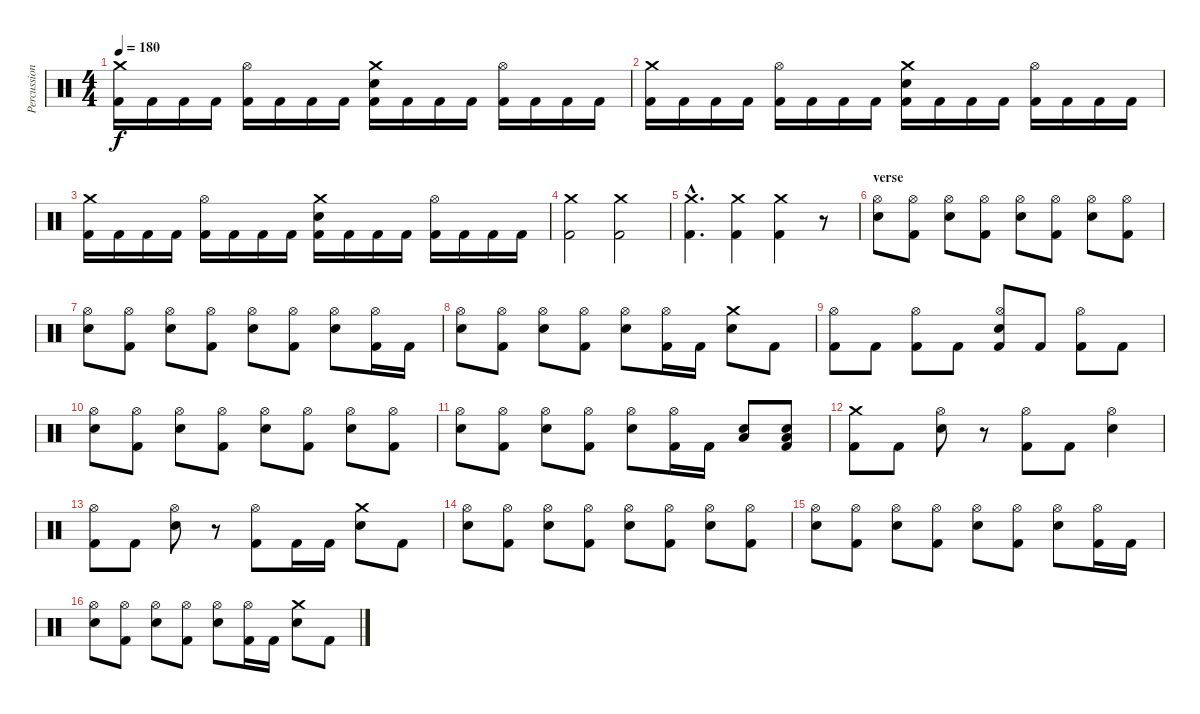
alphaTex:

\track ("Percussion" "Percussion") {instrument percussion}
\staff {score}
\articulation defaults
\ts (4 4)
\tempo 180
\clef neutral
\ks c
("Crash medium (hit)" "Kick (hit) 2").16{dy f} "Kick (hit) 2".16 "Kick (hit) 2".16 "Kick (hit) 2".16 ("Hi-Hat (open)" "Kick (hit) 2").16 "Kick (hit) 2".16 "Kick (hit) 2".16 "Kick (hit) 2".16 ("Crash medium (hit)" "Electric Snare (hit)" "Kick (hit) 2").16 "Kick (hit) 2".16 "Kick (hit) 2".16 "Kick (hit) 2".16 ("Hi-Hat (open)" "Kick (hit) 2").16 "Kick (hit) 2".16 "Kick (hit) 2".16 "Kick (hit) 2".16 |
("Crash medium (hit)" "Kick (hit) 2").16 "Kick (hit) 2".16 "Kick (hit) 2".16 "Kick (hit) 2".16 ("Hi-Hat (open)" "Kick (hit) 2").16 "Kick (hit) 2".16 "Kick (hit) 2".16 "Kick (hit) 2".16 ("Crash medium (hit)" "Electric Snare (hit)" "Kick (hit) 2").16 "Kick (hit) 2".16 "Kick (hit) 2".16 "Kick (hit) 2".16 ("Hi-Hat (open)" "Kick (hit) 2").16 "Kick (hit) 2".16 "Kick (hit) 2".16 "Kick (hit) 2".16 |
("Crash medium (hit)" "Kick (hit) 2").16 "Kick (hit) 2".16 "Kick (hit) 2".16 "Kick (hit) 2".16 ("Hi-Hat (open)" "Kick (hit) 2").16 "Kick (hit) 2".16 "Kick (hit) 2".16 "Kick (hit) 2".16 ("Crash medium (hit)" "Electric Snare (hit)" "Kick (hit) 2").16 "Kick (hit) 2".16 "Kick (hit) 2".16 "Kick (hit) 2".16 ("Hi-Hat (open)" "Kick (hit) 2").16 "Kick (hit) 2".16 "Kick (hit) 2".16 "Kick (hit) 2".16 |
("Crash medium (hit)" "Kick (hit) 2").2 ("Crash medium (hit)" "Kick (hit) 2").2 |
("Crash medium (hit)"{hac} "Kick (hit) 2"{hac}).4{d} ("Crash medium (hit)" "Kick (hit) 2").4 ("Crash medium (hit)" "Kick (hit) 2").4 r.8 |
\section ("" "verse")
("Hi-Hat (open)" "Electric Snare (hit)").8 ("Hi-Hat (open)" "Kick (hit) 2").8 ("Hi-Hat (open)" "Electric Snare (hit)").8 ("Hi-Hat (open)" "Kick (hit) 2").8 ("Hi-Hat (open)" "Electric Snare (hit)").8 ("Hi-Hat (open)" "Kick (hit) 2").8 ("Hi-Hat (open)" "Electric Snare (hit)").8 ("Hi-Hat (open)" "Kick (hit) 2").8 |
("Hi-Hat (open)" "Electric Snare (hit)").8 ("Hi-Hat (open)" "Kick (hit) 2").8 ("Hi-Hat (open)" "Electric Snare (hit)").8 ("Hi-Hat (open)" "Kick (hit) 2").8 ("Hi-Hat (open)" "Electric Snare (hit)").8 ("Hi-Hat (open)" "Kick (hit) 2").8 ("Hi-Hat (open)" "Electric Snare (hit)").8 ("Hi-Hat (open)" "Kick (hit) 2").16 "Kick (hit) 2".16 |
("Hi-Hat (open)" "Electric Snare (hit)").8 ("Hi-Hat (open)" "Kick (hit) 2").8 ("Hi-Hat (open)" "Electric Snare (hit)").8 ("Hi-Hat (open)" "Kick (hit) 2").8 ("Hi-Hat (open)" "Electric Snare (hit)").8 ("Hi-Hat (open)" "Kick (hit) 2").16 "Kick (hit) 2".16 ("Crash medium (hit)" "Electric Snare (hit)").8 "Kick (hit) 2".8 |
("Hi-Hat (open)" "Kick (hit) 2").8 "Kick (hit) 2".8 ("Hi-Hat (open)" "Kick (hit) 2").8 "Kick (hit) 2".8 ("Hi-Hat (open)" "Electric Snare (hit)" "Kick (hit) 2").8 "Kick (hit) 2".8 ("Hi-Hat (open)" "Kick (hit) 2").8 "Kick (hit) 2".8 |
("Hi-Hat (open)" "Electric Snare (hit)").8 ("Hi-Hat (open)" "Kick (hit) 2").8 ("Hi-Hat (open)" "Electric Snare (hit)").8 ("Hi-Hat (open)" "Kick (hit) 2").8 ("Hi-Hat (open)" "Electric Snare (hit)").8 ("Hi-Hat (open)" "Kick (hit) 2").8 ("Hi-Hat (open)" "Electric Snare (hit)").8 ("Hi-Hat (open)" "Kick (hit) 2").8 |
("Hi-Hat (open)" "Electric Snare (hit)").8 ("Hi-Hat (open)" "Kick (hit) 2").8 ("Hi-Hat (open)" "Electric Snare (hit)").8 ("Hi-Hat (open)" "Kick (hit) 2").8 ("Hi-Hat (open)" "Electric Snare (hit)").8 ("Hi-Hat (open)" "Kick (hit) 2").16 "Kick (hit) 2".16 ("Low Tom (hit)" "Electric Snare (hit)").8 ("Low Tom (hit)" "Electric Snare (hit)" "Kick (hit) 2").8 |
("Crash medium (hit)" "Kick (hit) 2").8 "Kick (hit) 2".8 ("Hi-Hat (open)" "Electric Snare (hit)").8 r.8 ("Hi-Hat (open)" "Kick (hit) 2").8 "Kick (hit) 2".8 ("Hi-Hat (open)" "Electric Snare (hit)").4 |
("Hi-Hat (open)" "Kick (hit) 2").8 "Kick (hit) 2".8 ("Hi-Hat (open)" "Electric Snare (hit)").8 r.8 ("Hi-Hat (open)" "Kick (hit) 2").8 "Kick (hit) 2".16 "Kick (hit) 2".16 ("Crash medium (hit)" "Electric Snare (hit)").8 "Kick (hit) 2".8 |
("Hi-Hat (open)" "Electric Snare (hit)").8 ("Hi-Hat (open)" "Kick (hit) 2").8 ("Hi-Hat (open)" "Electric Snare (hit)").8 ("Hi-Hat (open)" "Kick (hit) 2").8 ("Hi-Hat (open)" "Electric Snare (hit)").8 ("Hi-Hat (open)" "Kick (hit) 2").8 ("Hi-Hat (open)" "Electric Snare (hit)").8 ("Hi-Hat (open)" "Kick (hit) 2").8 |
("Hi-Hat (open)" "Electric Snare (hit)").8 ("Hi-Hat (open)" "Kick (hit) 2").8 ("Hi-Hat (open)" "Electric Snare (hit)").8 ("Hi-Hat (open)" "Kick (hit) 2").8 ("Hi-Hat (open)" "Electric Snare (hit)").8 ("Hi-Hat (open)" "Kick (hit) 2").8 ("Hi-Hat (open)" "Electric Snare (hit)").8 ("Hi-Hat (open)" "Kick (hit) 2").16 "Kick (hit) 2".16 |
("Hi-Hat (open)" "Electric Snare (hit)").8 ("Hi-Hat (open)" "Kick (hit) 2").8 ("Hi-Hat (open)" "Electric Snare (hit)").8 ("Hi-Hat (open)" "Kick (hit) 2").8 ("Hi-Hat (open)" "Electric Snare (hit)").8 ("Hi-Hat (open)" "Kick (hit) 2").16 "Kick (hit) 2".16 ("Crash medium (hit)" "Electric Snare (hit)").8 "Kick (hit) 2".8
